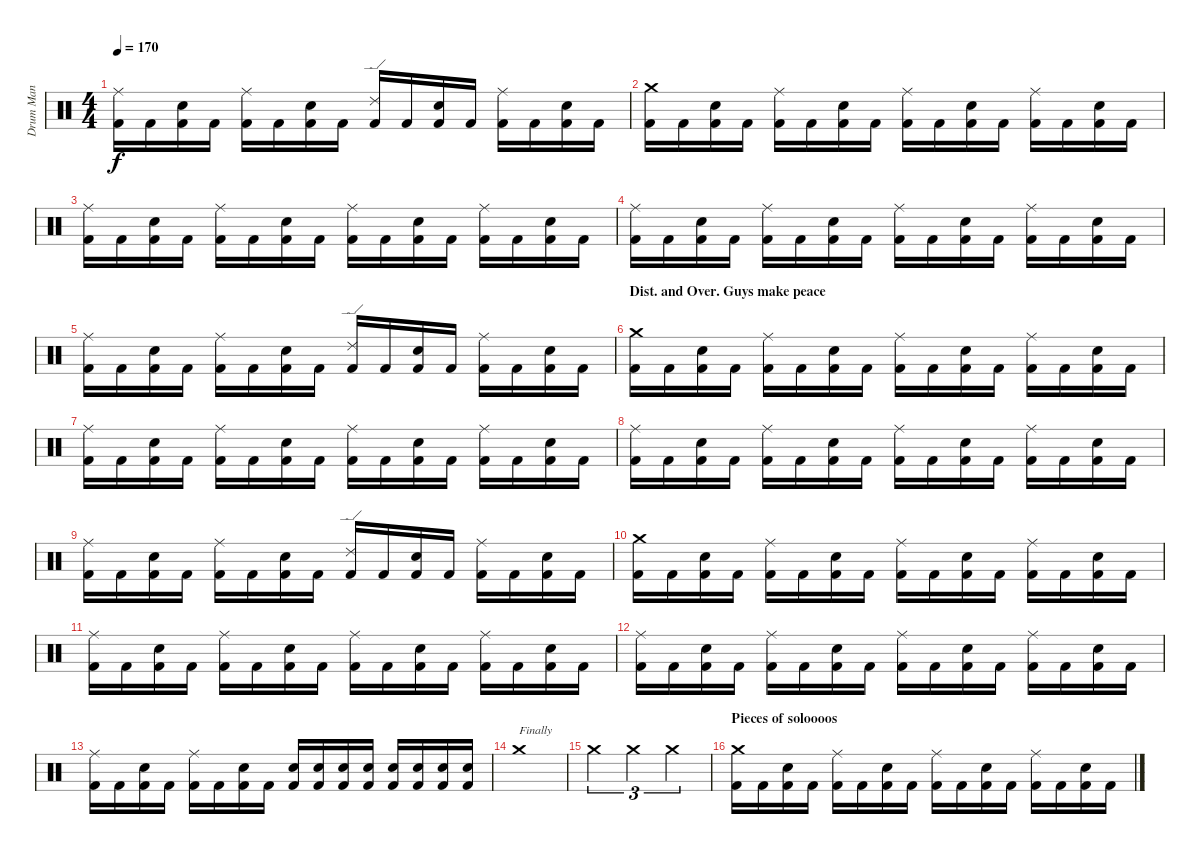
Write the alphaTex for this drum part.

\track ("Drum Man" "Drum Man") {instrument percussion}
\staff {score}
\articulation defaults
\ts (4 4)
\tempo 170
\clef neutral
\ks c
("Ride (middle)" "Kick (hit) 2").16{dy f} "Kick (hit) 2".16 ("Snare (hit) 2" "Kick (hit) 2").16 "Kick (hit) 2".16 ("Ride (middle)" "Kick (hit) 2").16 "Kick (hit) 2".16 ("Snare (hit) 2" "Kick (hit) 2").16 "Kick (hit) 2".16 ("Ride (edge) 2" "Kick (hit) 2").16 "Kick (hit) 2".16 ("Snare (hit) 2" "Kick (hit) 2").16 "Kick (hit) 2".16 ("Ride (middle)" "Kick (hit) 2").16 "Kick (hit) 2".16 ("Snare (hit) 2" "Kick (hit) 2").16 "Kick (hit) 2".16 |
("Crash medium (hit)" "Kick (hit) 2").16 "Kick (hit) 2".16 ("Snare (hit) 2" "Kick (hit) 2").16 "Kick (hit) 2".16 ("Ride (middle)" "Kick (hit) 2").16 "Kick (hit) 2".16 ("Snare (hit) 2" "Kick (hit) 2").16 "Kick (hit) 2".16 ("Ride (middle)" "Kick (hit) 2").16 "Kick (hit) 2".16 ("Snare (hit) 2" "Kick (hit) 2").16 "Kick (hit) 2".16 ("Ride (middle)" "Kick (hit) 2").16 "Kick (hit) 2".16 ("Snare (hit) 2" "Kick (hit) 2").16 "Kick (hit) 2".16 |
("Ride (middle)" "Kick (hit) 2").16 "Kick (hit) 2".16 ("Snare (hit) 2" "Kick (hit) 2").16 "Kick (hit) 2".16 ("Ride (middle)" "Kick (hit) 2").16 "Kick (hit) 2".16 ("Snare (hit) 2" "Kick (hit) 2").16 "Kick (hit) 2".16 ("Ride (middle)" "Kick (hit) 2").16 "Kick (hit) 2".16 ("Snare (hit) 2" "Kick (hit) 2").16 "Kick (hit) 2".16 ("Ride (middle)" "Kick (hit) 2").16 "Kick (hit) 2".16 ("Snare (hit) 2" "Kick (hit) 2").16 "Kick (hit) 2".16 |
("Ride (middle)" "Kick (hit) 2").16 "Kick (hit) 2".16 ("Snare (hit) 2" "Kick (hit) 2").16 "Kick (hit) 2".16 ("Ride (middle)" "Kick (hit) 2").16 "Kick (hit) 2".16 ("Snare (hit) 2" "Kick (hit) 2").16 "Kick (hit) 2".16 ("Ride (middle)" "Kick (hit) 2").16 "Kick (hit) 2".16 ("Snare (hit) 2" "Kick (hit) 2").16 "Kick (hit) 2".16 ("Ride (middle)" "Kick (hit) 2").16 "Kick (hit) 2".16 ("Snare (hit) 2" "Kick (hit) 2").16 "Kick (hit) 2".16 |
("Ride (middle)" "Kick (hit) 2").16 "Kick (hit) 2".16 ("Snare (hit) 2" "Kick (hit) 2").16 "Kick (hit) 2".16 ("Ride (middle)" "Kick (hit) 2").16 "Kick (hit) 2".16 ("Snare (hit) 2" "Kick (hit) 2").16 "Kick (hit) 2".16 ("Ride (edge) 2" "Kick (hit) 2").16 "Kick (hit) 2".16 ("Snare (hit) 2" "Kick (hit) 2").16 "Kick (hit) 2".16 ("Ride (middle)" "Kick (hit) 2").16 "Kick (hit) 2".16 ("Snare (hit) 2" "Kick (hit) 2").16 "Kick (hit) 2".16 |
\section ("" "Dist. and Over. Guys make peace")
("Crash medium (hit)" "Kick (hit) 2").16 "Kick (hit) 2".16 ("Snare (hit) 2" "Kick (hit) 2").16 "Kick (hit) 2".16 ("Ride (middle)" "Kick (hit) 2").16 "Kick (hit) 2".16 ("Snare (hit) 2" "Kick (hit) 2").16 "Kick (hit) 2".16 ("Ride (middle)" "Kick (hit) 2").16 "Kick (hit) 2".16 ("Snare (hit) 2" "Kick (hit) 2").16 "Kick (hit) 2".16 ("Ride (middle)" "Kick (hit) 2").16 "Kick (hit) 2".16 ("Snare (hit) 2" "Kick (hit) 2").16 "Kick (hit) 2".16 |
("Ride (middle)" "Kick (hit) 2").16 "Kick (hit) 2".16 ("Snare (hit) 2" "Kick (hit) 2").16 "Kick (hit) 2".16 ("Ride (middle)" "Kick (hit) 2").16 "Kick (hit) 2".16 ("Snare (hit) 2" "Kick (hit) 2").16 "Kick (hit) 2".16 ("Ride (middle)" "Kick (hit) 2").16 "Kick (hit) 2".16 ("Snare (hit) 2" "Kick (hit) 2").16 "Kick (hit) 2".16 ("Ride (middle)" "Kick (hit) 2").16 "Kick (hit) 2".16 ("Snare (hit) 2" "Kick (hit) 2").16 "Kick (hit) 2".16 |
("Ride (middle)" "Kick (hit) 2").16 "Kick (hit) 2".16 ("Snare (hit) 2" "Kick (hit) 2").16 "Kick (hit) 2".16 ("Ride (middle)" "Kick (hit) 2").16 "Kick (hit) 2".16 ("Snare (hit) 2" "Kick (hit) 2").16 "Kick (hit) 2".16 ("Ride (middle)" "Kick (hit) 2").16 "Kick (hit) 2".16 ("Snare (hit) 2" "Kick (hit) 2").16 "Kick (hit) 2".16 ("Ride (middle)" "Kick (hit) 2").16 "Kick (hit) 2".16 ("Snare (hit) 2" "Kick (hit) 2").16 "Kick (hit) 2".16 |
("Ride (middle)" "Kick (hit) 2").16 "Kick (hit) 2".16 ("Snare (hit) 2" "Kick (hit) 2").16 "Kick (hit) 2".16 ("Ride (middle)" "Kick (hit) 2").16 "Kick (hit) 2".16 ("Snare (hit) 2" "Kick (hit) 2").16 "Kick (hit) 2".16 ("Ride (edge) 2" "Kick (hit) 2").16 "Kick (hit) 2".16 ("Snare (hit) 2" "Kick (hit) 2").16 "Kick (hit) 2".16 ("Ride (middle)" "Kick (hit) 2").16 "Kick (hit) 2".16 ("Snare (hit) 2" "Kick (hit) 2").16 "Kick (hit) 2".16 |
("Crash medium (hit)" "Kick (hit) 2").16 "Kick (hit) 2".16 ("Snare (hit) 2" "Kick (hit) 2").16 "Kick (hit) 2".16 ("Ride (middle)" "Kick (hit) 2").16 "Kick (hit) 2".16 ("Snare (hit) 2" "Kick (hit) 2").16 "Kick (hit) 2".16 ("Ride (middle)" "Kick (hit) 2").16 "Kick (hit) 2".16 ("Snare (hit) 2" "Kick (hit) 2").16 "Kick (hit) 2".16 ("Ride (middle)" "Kick (hit) 2").16 "Kick (hit) 2".16 ("Snare (hit) 2" "Kick (hit) 2").16 "Kick (hit) 2".16 |
("Ride (middle)" "Kick (hit) 2").16 "Kick (hit) 2".16 ("Snare (hit) 2" "Kick (hit) 2").16 "Kick (hit) 2".16 ("Ride (middle)" "Kick (hit) 2").16 "Kick (hit) 2".16 ("Snare (hit) 2" "Kick (hit) 2").16 "Kick (hit) 2".16 ("Ride (middle)" "Kick (hit) 2").16 "Kick (hit) 2".16 ("Snare (hit) 2" "Kick (hit) 2").16 "Kick (hit) 2".16 ("Ride (middle)" "Kick (hit) 2").16 "Kick (hit) 2".16 ("Snare (hit) 2" "Kick (hit) 2").16 "Kick (hit) 2".16 |
("Ride (middle)" "Kick (hit) 2").16 "Kick (hit) 2".16 ("Snare (hit) 2" "Kick (hit) 2").16 "Kick (hit) 2".16 ("Ride (middle)" "Kick (hit) 2").16 "Kick (hit) 2".16 ("Snare (hit) 2" "Kick (hit) 2").16 "Kick (hit) 2".16 ("Ride (middle)" "Kick (hit) 2").16 "Kick (hit) 2".16 ("Snare (hit) 2" "Kick (hit) 2").16 "Kick (hit) 2".16 ("Ride (middle)" "Kick (hit) 2").16 "Kick (hit) 2".16 ("Snare (hit) 2" "Kick (hit) 2").16 "Kick (hit) 2".16 |
("Ride (middle)" "Kick (hit) 2").16 "Kick (hit) 2".16 ("Snare (hit) 2" "Kick (hit) 2").16 "Kick (hit) 2".16 ("Ride (middle)" "Kick (hit) 2").16 "Kick (hit) 2".16 ("Snare (hit) 2" "Kick (hit) 2").16 "Kick (hit) 2".16 ("Electric Snare (hit)" "Kick (hit) 2").16 ("Electric Snare (hit)" "Kick (hit) 2").16 ("Electric Snare (hit)" "Kick (hit) 2").16 ("Electric Snare (hit)" "Kick (hit) 2").16 ("Electric Snare (hit)" "Kick (hit) 2").16 ("Electric Snare (hit)" "Kick (hit) 2").16 ("Electric Snare (hit)" "Kick (hit) 2").16 ("Electric Snare (hit)" "Kick (hit) 2").16 |
"Crash medium (hit)".1{txt "Finally"} |
"Crash medium (hit)".2{tu (3 2)} "Crash medium (hit)".2{tu (3 2)} "Crash medium (hit)".2{tu (3 2)} |
\section ("" "Pieces of soloooos")
("Crash medium (hit)" "Kick (hit) 2").16 "Kick (hit) 2".16 ("Snare (hit) 2" "Kick (hit) 2").16 "Kick (hit) 2".16 ("Ride (middle)" "Kick (hit) 2").16 "Kick (hit) 2".16 ("Snare (hit) 2" "Kick (hit) 2").16 "Kick (hit) 2".16 ("Ride (middle)" "Kick (hit) 2").16 "Kick (hit) 2".16 ("Snare (hit) 2" "Kick (hit) 2").16 "Kick (hit) 2".16 ("Ride (middle)" "Kick (hit) 2").16 "Kick (hit) 2".16 ("Snare (hit) 2" "Kick (hit) 2").16 "Kick (hit) 2".16
